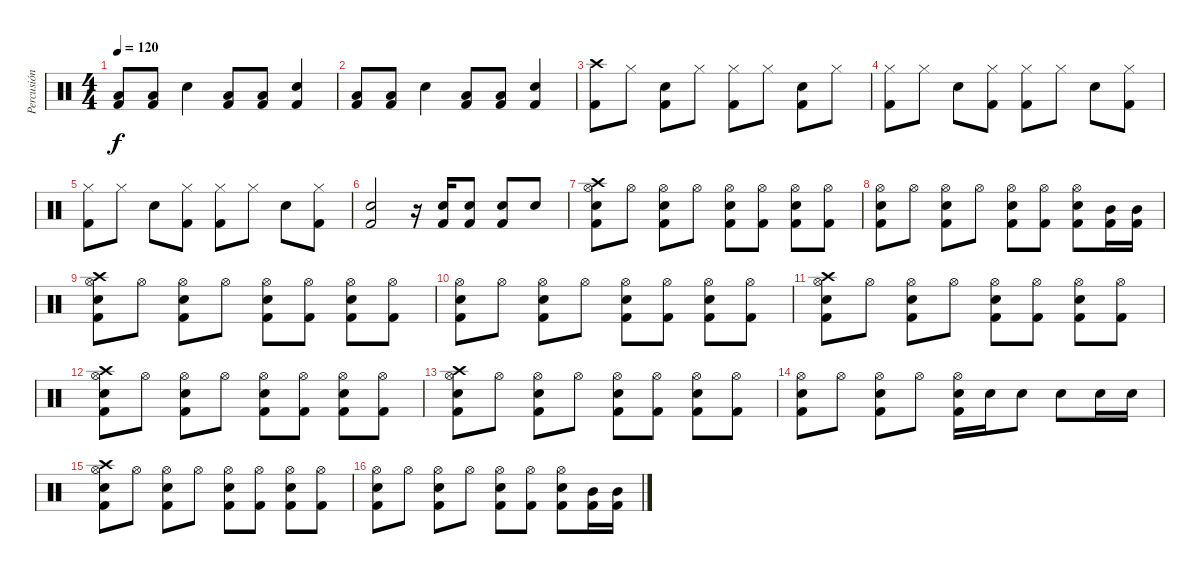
\track ("Percusión" "Percusión") {instrument percussion}
\staff {score}
\articulation defaults
\ts (4 4)
\tempo 120
\clef neutral
\ks c
("Low Floor Tom (hit)" "Kick (hit) 2").8{dy f} ("Low Floor Tom (hit)" "Kick (hit) 2").8 "Electric Snare (hit)".4 ("Low Floor Tom (hit)" "Kick (hit) 2").8 ("Low Floor Tom (hit)" "Kick (hit) 2").8 ("Electric Snare (hit)" "Kick (hit) 2").4 |
("Low Floor Tom (hit)" "Kick (hit) 2").8 ("Low Floor Tom (hit)" "Kick (hit) 2").8 "Electric Snare (hit)".4 ("Low Floor Tom (hit)" "Kick (hit) 2").8 ("Low Floor Tom (hit)" "Kick (hit) 2").8 ("Electric Snare (hit)" "Kick (hit) 2").4 |
("Crash high (hit)" "Kick (hit) 2").8 "Hi-Hat (closed)".8 ("Electric Snare (hit)" "Kick (hit) 2").8 "Hi-Hat (closed)".8 ("Hi-Hat (closed)" "Kick (hit) 2").8 "Hi-Hat (closed)".8 ("Electric Snare (hit)" "Kick (hit) 2").8 "Hi-Hat (closed)".8 |
("Hi-Hat (closed)" "Kick (hit) 2").8 "Hi-Hat (closed)".8 "Electric Snare (hit)".8 ("Hi-Hat (closed)" "Kick (hit) 2").8 ("Hi-Hat (closed)" "Kick (hit) 2").8 "Hi-Hat (closed)".8 "Electric Snare (hit)".8 ("Hi-Hat (closed)" "Kick (hit) 2").8 |
("Hi-Hat (closed)" "Kick (hit) 2").8 "Hi-Hat (closed)".8 "Electric Snare (hit)".8 ("Hi-Hat (closed)" "Kick (hit) 2").8 ("Hi-Hat (closed)" "Kick (hit) 2").8 "Hi-Hat (closed)".8 "Electric Snare (hit)".8 ("Hi-Hat (closed)" "Kick (hit) 2").8 |
("Electric Snare (hit)" "Kick (hit) 2").2 r.16 ("Electric Snare (hit)" "Kick (hit) 2").16 ("Electric Snare (hit)" "Kick (hit) 2").8 ("Electric Snare (hit)" "Kick (hit) 2").8 "Electric Snare (hit)".8 |
("Crash high (hit)" "Hi-Hat (open)" "Electric Snare (hit)" "Kick (hit) 2").8 "Hi-Hat (open)".8 ("Hi-Hat (open)" "Electric Snare (hit)" "Kick (hit) 2").8 "Hi-Hat (open)".8 ("Hi-Hat (open)" "Electric Snare (hit)" "Kick (hit) 2").8 ("Hi-Hat (open)" "Kick (hit) 2").8 ("Hi-Hat (open)" "Electric Snare (hit)" "Kick (hit) 2").8 ("Hi-Hat (open)" "Kick (hit) 2").8 |
("Hi-Hat (open)" "Electric Snare (hit)" "Kick (hit) 2").8 "Hi-Hat (open)".8 ("Hi-Hat (open)" "Electric Snare (hit)" "Kick (hit) 2").8 "Hi-Hat (open)".8 ("Hi-Hat (open)" "Electric Snare (hit)" "Kick (hit) 2").8 ("Hi-Hat (open)" "Kick (hit) 2").8 ("Hi-Hat (open)" "Electric Snare (hit)" "Kick (hit) 2").8 ("Mid Tom (hit)" "Kick (hit) 2").16 ("Mid Tom (hit)" "Kick (hit) 2").16 |
("Crash high (hit)" "Hi-Hat (open)" "Electric Snare (hit)" "Kick (hit) 2").8 "Hi-Hat (open)".8 ("Hi-Hat (open)" "Electric Snare (hit)" "Kick (hit) 2").8 "Hi-Hat (open)".8 ("Hi-Hat (open)" "Electric Snare (hit)" "Kick (hit) 2").8 ("Hi-Hat (open)" "Kick (hit) 2").8 ("Hi-Hat (open)" "Electric Snare (hit)" "Kick (hit) 2").8 ("Hi-Hat (open)" "Kick (hit) 2").8 |
("Hi-Hat (open)" "Electric Snare (hit)" "Kick (hit) 2").8 "Hi-Hat (open)".8 ("Hi-Hat (open)" "Electric Snare (hit)" "Kick (hit) 2").8 "Hi-Hat (open)".8 ("Hi-Hat (open)" "Electric Snare (hit)" "Kick (hit) 2").8 ("Hi-Hat (open)" "Kick (hit) 2").8 ("Hi-Hat (open)" "Electric Snare (hit)" "Kick (hit) 2").8 ("Hi-Hat (open)" "Kick (hit) 2").8 |
("Crash high (hit)" "Hi-Hat (open)" "Electric Snare (hit)" "Kick (hit) 2").8 "Hi-Hat (open)".8 ("Hi-Hat (open)" "Electric Snare (hit)" "Kick (hit) 2").8 "Hi-Hat (open)".8 ("Hi-Hat (open)" "Electric Snare (hit)" "Kick (hit) 2").8 ("Hi-Hat (open)" "Kick (hit) 2").8 ("Hi-Hat (open)" "Electric Snare (hit)" "Kick (hit) 2").8 ("Hi-Hat (open)" "Kick (hit) 2").8 |
("Crash high (hit)" "Hi-Hat (open)" "Electric Snare (hit)" "Kick (hit) 2").8 "Hi-Hat (open)".8 ("Hi-Hat (open)" "Electric Snare (hit)" "Kick (hit) 2").8 "Hi-Hat (open)".8 ("Hi-Hat (open)" "Electric Snare (hit)" "Kick (hit) 2").8 ("Hi-Hat (open)" "Kick (hit) 2").8 ("Hi-Hat (open)" "Electric Snare (hit)" "Kick (hit) 2").8 ("Hi-Hat (open)" "Kick (hit) 2").8 |
("Crash high (hit)" "Hi-Hat (open)" "Electric Snare (hit)" "Kick (hit) 2").8 "Hi-Hat (open)".8 ("Hi-Hat (open)" "Electric Snare (hit)" "Kick (hit) 2").8 "Hi-Hat (open)".8 ("Hi-Hat (open)" "Electric Snare (hit)" "Kick (hit) 2").8 ("Hi-Hat (open)" "Kick (hit) 2").8 ("Hi-Hat (open)" "Electric Snare (hit)" "Kick (hit) 2").8 ("Hi-Hat (open)" "Kick (hit) 2").8 |
("Hi-Hat (open)" "Electric Snare (hit)" "Kick (hit) 2").8 "Hi-Hat (open)".8 ("Hi-Hat (open)" "Electric Snare (hit)" "Kick (hit) 2").8 "Hi-Hat (open)".8 ("Hi-Hat (open)" "Electric Snare (hit)" "Kick (hit) 2").16 "Electric Snare (hit)".16 "Electric Snare (hit)".8 "Electric Snare (hit)".8 "Electric Snare (hit)".16 "Electric Snare (hit)".16 |
("Crash high (hit)" "Hi-Hat (open)" "Electric Snare (hit)" "Kick (hit) 2").8 "Hi-Hat (open)".8 ("Hi-Hat (open)" "Electric Snare (hit)" "Kick (hit) 2").8 "Hi-Hat (open)".8 ("Hi-Hat (open)" "Electric Snare (hit)" "Kick (hit) 2").8 ("Hi-Hat (open)" "Kick (hit) 2").8 ("Hi-Hat (open)" "Electric Snare (hit)" "Kick (hit) 2").8 ("Hi-Hat (open)" "Kick (hit) 2").8 |
("Hi-Hat (open)" "Electric Snare (hit)" "Kick (hit) 2").8 "Hi-Hat (open)".8 ("Hi-Hat (open)" "Electric Snare (hit)" "Kick (hit) 2").8 "Hi-Hat (open)".8 ("Hi-Hat (open)" "Electric Snare (hit)" "Kick (hit) 2").8 ("Hi-Hat (open)" "Kick (hit) 2").8 ("Hi-Hat (open)" "Electric Snare (hit)" "Kick (hit) 2").8 ("Mid Tom (hit)" "Kick (hit) 2").16 ("Mid Tom (hit)" "Kick (hit) 2").16
